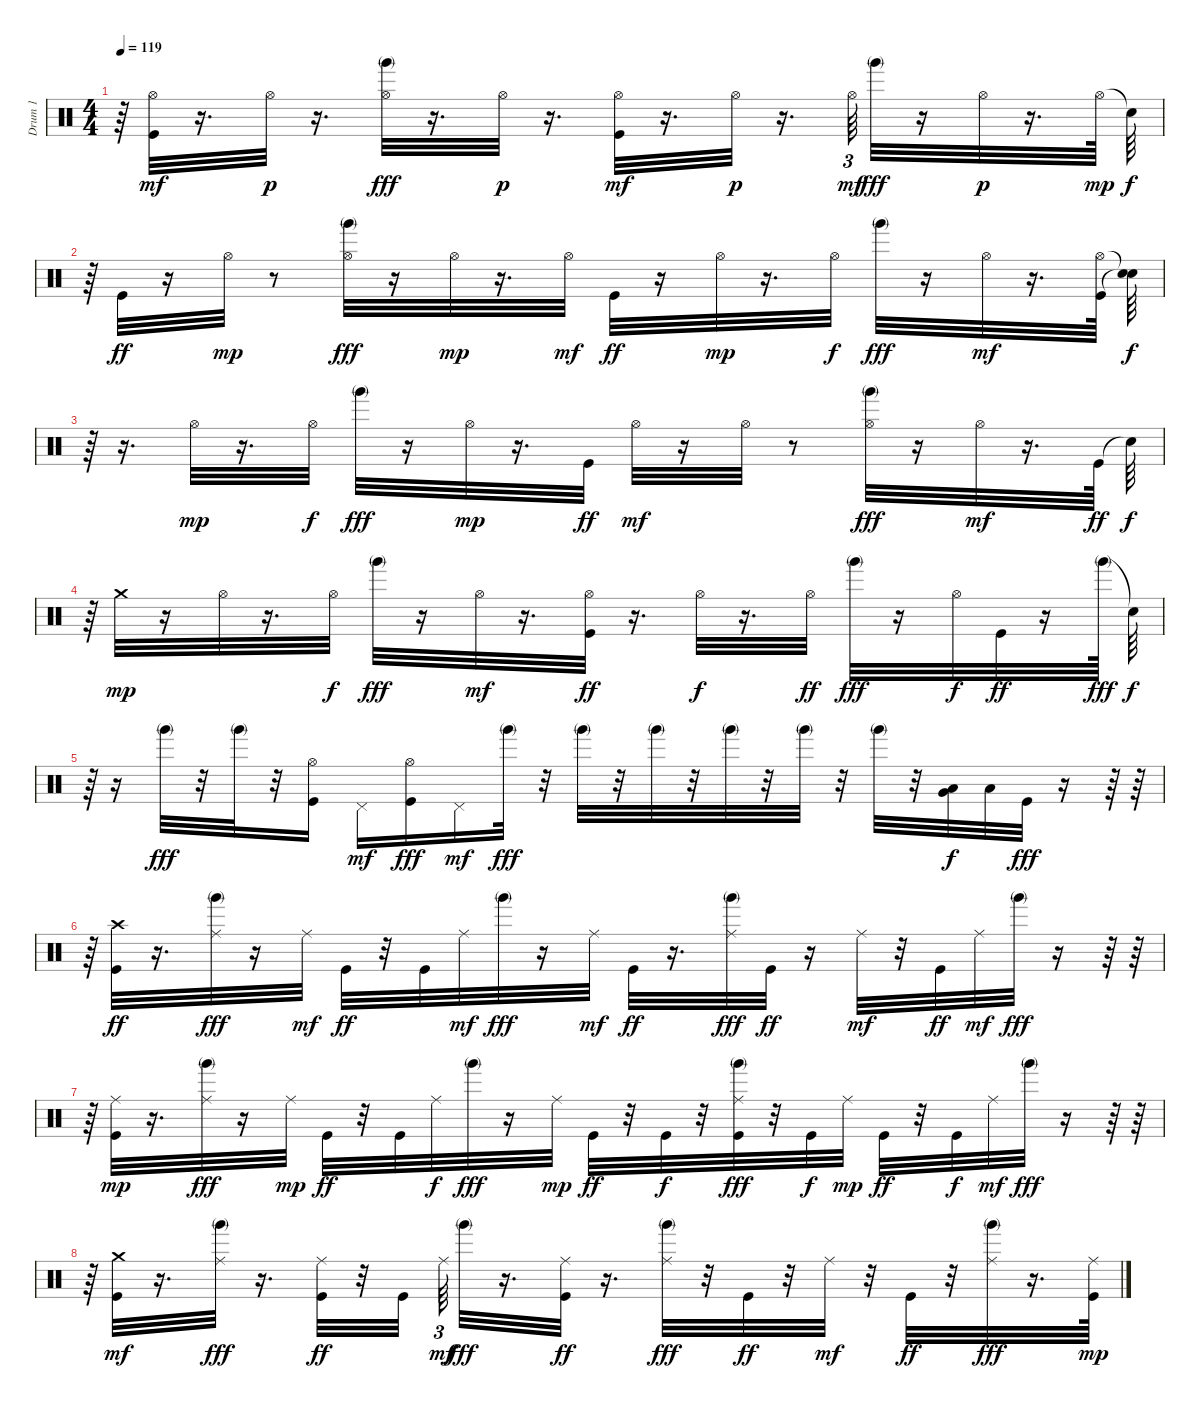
\track ("Drum 1                          " "Drum 1    ") {instrument percussion}
\staff {score}
\articulation defaults
\ts (4 4)
\tempo 119
\clef neutral
\ks c
r.64{dy p} ("Kick (hit)" "Hi-Hat (open)").32{dy mf} r.16{d} "Hi-Hat (open)".32{dy p} r.16{d} ("Hi-Hat (open)" "Hand (mute) 2").32{dy fff} r.16{d} "Hi-Hat (open)".32{dy p} r.16{d} ("Kick (hit)" "Hi-Hat (open)").32{dy mf} r.16{d} "Hi-Hat (open)".32{dy p} r.16{d} "Hi-Hat (open)".64{tu (3 2) dy mf} "Hand (mute) 2".32{dy fff} r.16 "Hi-Hat (open)".32{dy p} r.16{d} "Hi-Hat (open)".64{dy mp} "Snare (hit)"{t}.64{dy f} |
r.64 "Kick (hit)".32{dy ff} r.16 "Hi-Hat (open)".32{dy mp} r.8 ("Hi-Hat (open)" "Hand (mute) 2").32{dy fff} r.16 "Hi-Hat (open)".32{dy mp} r.16{d} "Hi-Hat (open)".32{dy mf} "Kick (hit)".32{dy ff} r.16 "Hi-Hat (open)".32{dy mp} r.16{d} "Hi-Hat (open)".32{dy f} "Hand (mute) 2".32{dy fff} r.16 "Hi-Hat (open)".32{dy mf} r.16{d} ("Kick (hit)" "Hi-Hat (open)").64 ("Snare (hit)"{t} "Snare (hit)"{t}).64{dy f} |
r.64 r.16{d} "Hi-Hat (open)".32{dy mp} r.16{d} "Hi-Hat (open)".32{dy f} "Hand (mute) 2".32{dy fff} r.16 "Hi-Hat (open)".32{dy mp} r.16{d} "Kick (hit)".32{dy ff} "Hi-Hat (open)".32{dy mf} r.16 "Hi-Hat (open)".32 r.8 ("Hi-Hat (open)" "Hand (mute) 2").32{dy fff} r.16 "Hi-Hat (open)".32{dy mf} r.16{d} "Kick (hit)".64{dy ff} "Snare (hit)"{t}.64{dy f} |
r.64 "Crash medium (hit)".32{dy mp} r.16 "Hi-Hat (open)".32 r.16{d} "Hi-Hat (open)".32{dy f} "Hand (mute) 2".32{dy fff} r.16 "Hi-Hat (open)".32{dy mf} r.16{d} ("Kick (hit)" "Hi-Hat (open)").32{dy ff} r.16{d} "Hi-Hat (open)".32{dy f} r.16{d} "Hi-Hat (open)".32{dy ff} "Hand (mute) 2".32{dy fff} r.16 "Hi-Hat (open)".32{dy f} "Kick (hit)".32{dy ff} r.16 "Hand (mute) 2".64{dy fff} "Snare (hit)"{t}.64{dy f} |
r.64 r.16 "Hand (mute) 2".32{dy fff} r.32 "Hand (mute) 2".32 r.32 ("Hi-Hat (open)" "Kick (hit)").16 "Pedal Hi-Hat (hit)".16{dy mf} ("Hi-Hat (open)" "Kick (hit)").16{dy fff} "Pedal Hi-Hat (hit)".16{dy mf} "Hand (mute) 2".32{dy fff} r.32 "Hand (mute) 2".32 r.32 "Hand (mute) 2".32 r.32 "Hand (mute) 2".32 r.32 "Hand (mute) 2".32 r.32 "Hand (mute) 2".32 r.32 ("Very Low Tom (hit)" "Low Tom (hit)").32{dy f} "Low Floor Tom (hit)".32 "Kick (hit)".32{dy fff} r.16 r.64 r.64 |
r.64 ("Crash high (hit)" "Kick (hit)").32{dy ff} r.16{d} ("Ride (middle)" "Hand (mute) 2").32{dy fff} r.16 "Ride (middle)".32{dy mf} "Kick (hit)".32{dy ff} r.32 "Kick (hit)".32 "Ride (middle)".32{dy mf} "Hand (mute) 2".32{dy fff} r.16 "Ride (middle)".32{dy mf} "Kick (hit)".32{dy ff} r.16{d} ("Ride (middle)" "Hand (mute) 2").32{dy fff} "Kick (hit)".32{dy ff} r.16 "Ride (middle)".32{dy mf} r.32 "Kick (hit)".32{dy ff} "Ride (middle)".32{dy mf} "Hand (mute) 2".32{dy fff} r.16 r.64 r.64 |
r.64 ("Kick (hit)" "Ride (middle)").32{dy mp} r.16{d} ("Ride (middle)" "Hand (mute) 2").32{dy fff} r.16 "Ride (middle)".32{dy mp} "Kick (hit)".32{dy ff} r.32 "Kick (hit)".32 "Ride (middle)".32{dy f} "Hand (mute) 2".32{dy fff} r.16 "Ride (middle)".32{dy mp} "Kick (hit)".32{dy ff} r.32 "Kick (hit)".32{dy f} r.32 ("Ride (middle)" "Kick (hit)" "Hand (mute) 2").32{dy fff} r.32 "Kick (hit)".32{dy f} "Ride (middle)".32{dy mp} "Kick (hit)".32{dy ff} r.32 "Kick (hit)".32{dy f} "Ride (middle)".32{dy mf} "Hand (mute) 2".32{dy fff} r.16 r.64 r.64 |
r.64 ("Kick (hit)" "Crash medium (hit)").32{dy mf} r.16{d} ("Ride (middle)" "Hand (mute) 2").32{dy fff} r.16{d} ("Ride (middle)" "Kick (hit)").32{dy ff} r.32 "Kick (hit)".32 "Ride (middle)".64{tu (3 2) dy mf} "Hand (mute) 2".32{dy fff} r.16{d} ("Ride (middle)" "Kick (hit)").32{dy ff} r.16{d} ("Ride (middle)" "Hand (mute) 2").32{dy fff} r.32 "Kick (hit)".32{dy ff} r.32 "Ride (middle)".32{dy mf} r.32 "Kick (hit)".32{dy ff} r.32 ("Ride (middle)" "Hand (mute) 2").32{dy fff} r.16{d} ("Kick (hit)" "Ride (middle)").64{dy mp}
